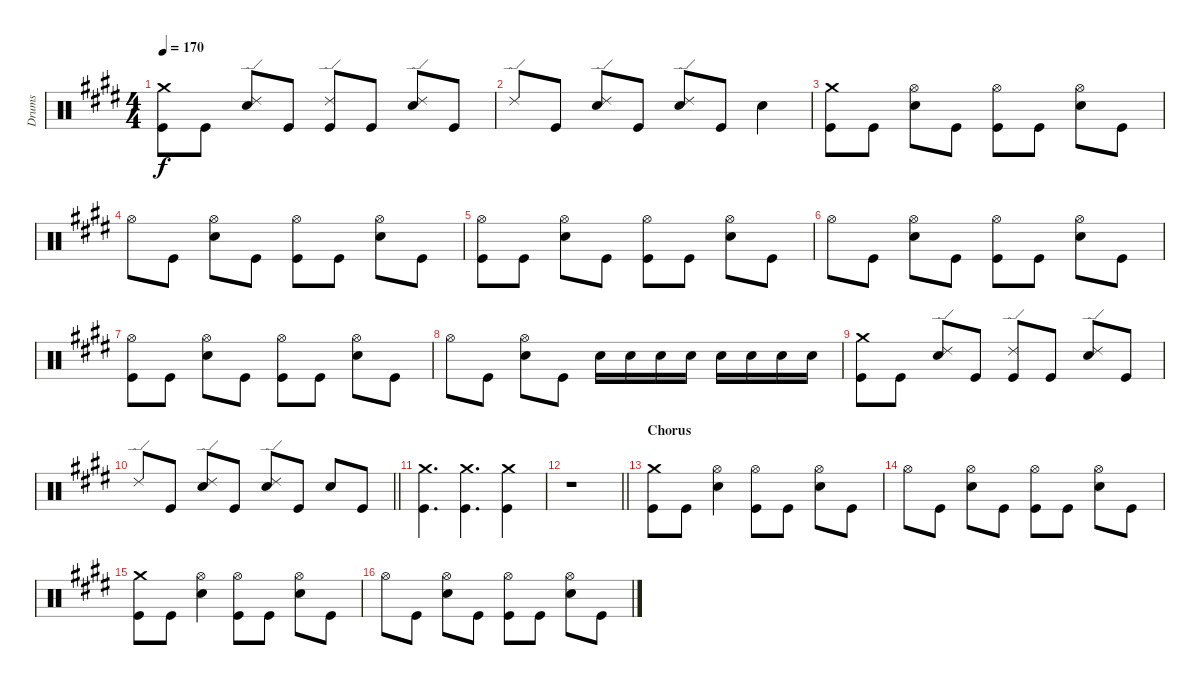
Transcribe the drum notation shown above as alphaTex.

\track ("Drums" "Drums") {instrument percussion}
\staff {score}
\articulation defaults
\ts (4 4)
\tempo 170
\clef neutral
\ks e
("Kick (hit)" "Crash medium (hit)").8{dy f} "Kick (hit)".8 ("Ride (edge) 2" "Snare (hit) 2").8 "Kick (hit)".8 ("Kick (hit)" "Ride (edge) 2").8 "Kick (hit)".8 ("Ride (edge) 2" "Snare (hit) 2").8 "Kick (hit)".8 |
"Ride (edge) 2".8 "Kick (hit)".8 ("Snare (hit) 2" "Ride (edge) 2").8 "Kick (hit)".8 ("Snare (hit) 2" "Ride (edge) 2").8 "Kick (hit)".8 "Snare (hit) 2".4 |
("Kick (hit)" "Crash medium (hit)").8 "Kick (hit)".8 ("Hi-Hat (open)" "Snare (hit) 2").8 "Kick (hit)".8 ("Kick (hit)" "Hi-Hat (open)").8 "Kick (hit)".8 ("Hi-Hat (open)" "Snare (hit) 2").8 "Kick (hit)".8 |
"Hi-Hat (open)".8 "Kick (hit)".8 ("Hi-Hat (open)" "Snare (hit) 2").8 "Kick (hit)".8 ("Kick (hit)" "Hi-Hat (open)").8 "Kick (hit)".8 ("Hi-Hat (open)" "Snare (hit) 2").8 "Kick (hit)".8 |
("Kick (hit)" "Hi-Hat (open)").8 "Kick (hit)".8 ("Hi-Hat (open)" "Snare (hit) 2").8 "Kick (hit)".8 ("Kick (hit)" "Hi-Hat (open)").8 "Kick (hit)".8 ("Hi-Hat (open)" "Snare (hit) 2").8 "Kick (hit)".8 |
"Hi-Hat (open)".8 "Kick (hit)".8 ("Hi-Hat (open)" "Snare (hit) 2").8 "Kick (hit)".8 ("Kick (hit)" "Hi-Hat (open)").8 "Kick (hit)".8 ("Hi-Hat (open)" "Snare (hit) 2").8 "Kick (hit)".8 |
("Kick (hit)" "Hi-Hat (open)").8 "Kick (hit)".8 ("Hi-Hat (open)" "Snare (hit) 2").8 "Kick (hit)".8 ("Kick (hit)" "Hi-Hat (open)").8 "Kick (hit)".8 ("Hi-Hat (open)" "Snare (hit) 2").8 "Kick (hit)".8 |
"Hi-Hat (open)".8 "Kick (hit)".8 ("Hi-Hat (open)" "Snare (hit) 2").8 "Kick (hit)".8 "Snare (hit) 2".16 "Snare (hit) 2".16 "Snare (hit) 2".16 "Snare (hit) 2".16 "Snare (hit) 2".16 "Snare (hit) 2".16 "Snare (hit) 2".16 "Snare (hit) 2".16 |
("Kick (hit)" "Crash medium (hit)").8 "Kick (hit)".8 ("Ride (edge) 2" "Snare (hit) 2").8 "Kick (hit)".8 ("Kick (hit)" "Ride (edge) 2").8 "Kick (hit)".8 ("Ride (edge) 2" "Snare (hit) 2").8 "Kick (hit)".8 |
\barLineRight lightlight "Ride (edge) 2".8 "Kick (hit)".8
("Snare (hit) 2" "Ride (edge) 2").8 "Kick (hit)".8 ("Snare (hit) 2" "Ride (edge) 2").8 "Kick (hit)".8 "Snare (hit) 2".8 "Kick (hit)".8 |
("Kick (hit)" "Crash medium (hit)").4{d} ("Kick (hit)" "Crash medium (hit)").4{d} ("Kick (hit)" "Crash medium (hit)").4 |
\barLineRight lightlight
r.1 |
\section ("" "Chorus")
("Kick (hit)" "Crash medium (hit)").8 "Kick (hit)".8 ("Snare (hit) 2" "Hi-Hat (open)").4 ("Kick (hit)" "Hi-Hat (open)").8 "Kick (hit)".8 ("Snare (hit) 2" "Hi-Hat (open)").8 "Kick (hit)".8 |
"Hi-Hat (open)".8 "Kick (hit)".8 ("Snare (hit) 2" "Hi-Hat (open)").8 "Kick (hit)".8 ("Hi-Hat (open)" "Kick (hit)").8 "Kick (hit)".8 ("Snare (hit) 2" "Hi-Hat (open)").8 "Kick (hit)".8 |
("Kick (hit)" "Crash medium (hit)").8 "Kick (hit)".8 ("Snare (hit) 2" "Hi-Hat (open)").4 ("Kick (hit)" "Hi-Hat (open)").8 "Kick (hit)".8 ("Snare (hit) 2" "Hi-Hat (open)").8 "Kick (hit)".8 |
"Hi-Hat (open)".8 "Kick (hit)".8 ("Snare (hit) 2" "Hi-Hat (open)").8 "Kick (hit)".8 ("Hi-Hat (open)" "Kick (hit)").8 "Kick (hit)".8 ("Snare (hit) 2" "Hi-Hat (open)").8 "Kick (hit)".8
